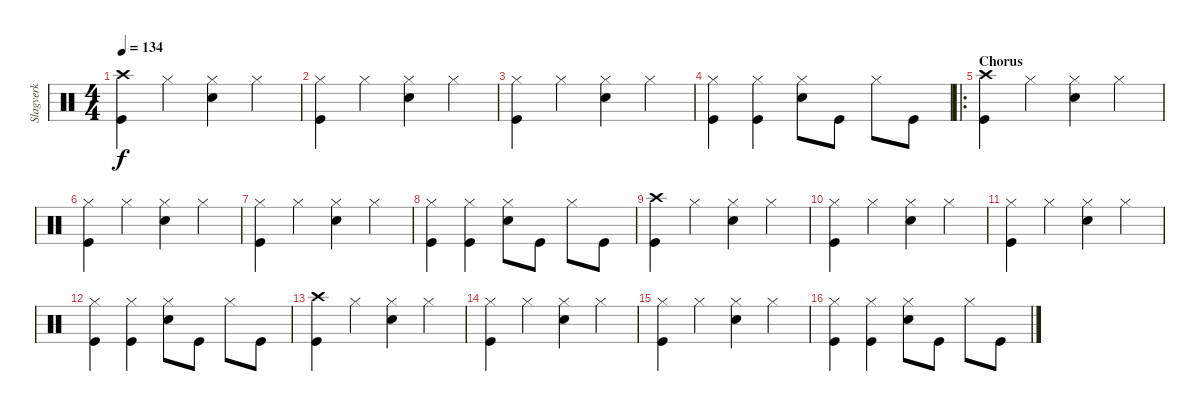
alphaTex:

\track ("Slagverk" "Slagverk") {instrument percussion}
\staff {score}
\articulation defaults
\ts (4 4)
\tempo 134
\clef neutral
\ks c
("Crash high (hit)" "Kick (hit)").4{dy f} "Hi-Hat (closed)".4 ("Hi-Hat (closed)" "Snare (hit) 2").4 "Hi-Hat (closed)".4 |
("Hi-Hat (closed)" "Kick (hit)").4 "Hi-Hat (closed)".4 ("Hi-Hat (closed)" "Snare (hit) 2").4 "Hi-Hat (closed)".4 |
("Hi-Hat (closed)" "Kick (hit)").4 "Hi-Hat (closed)".4 ("Hi-Hat (closed)" "Snare (hit) 2").4 "Hi-Hat (closed)".4 |
("Hi-Hat (closed)" "Kick (hit)").4 ("Hi-Hat (closed)" "Kick (hit)").4 ("Hi-Hat (closed)" "Snare (hit) 2").8 "Kick (hit)".8 "Hi-Hat (closed)".8 "Kick (hit)".8 |
\ro
\section ("" "Chorus")
("Crash high (hit)" "Kick (hit)").4 "Hi-Hat (closed)".4 ("Hi-Hat (closed)" "Snare (hit) 2").4 "Hi-Hat (closed)".4 |
("Hi-Hat (closed)" "Kick (hit)").4 "Hi-Hat (closed)".4 ("Hi-Hat (closed)" "Snare (hit) 2").4 "Hi-Hat (closed)".4 |
("Hi-Hat (closed)" "Kick (hit)").4 "Hi-Hat (closed)".4 ("Hi-Hat (closed)" "Snare (hit) 2").4 "Hi-Hat (closed)".4 |
("Hi-Hat (closed)" "Kick (hit)").4 ("Hi-Hat (closed)" "Kick (hit)").4 ("Hi-Hat (closed)" "Snare (hit) 2").8 "Kick (hit)".8 "Hi-Hat (closed)".8 "Kick (hit)".8 |
("Crash high (hit)" "Kick (hit)").4 "Hi-Hat (closed)".4 ("Hi-Hat (closed)" "Snare (hit) 2").4 "Hi-Hat (closed)".4 |
("Hi-Hat (closed)" "Kick (hit)").4 "Hi-Hat (closed)".4 ("Hi-Hat (closed)" "Snare (hit) 2").4 "Hi-Hat (closed)".4 |
("Hi-Hat (closed)" "Kick (hit)").4 "Hi-Hat (closed)".4 ("Hi-Hat (closed)" "Snare (hit) 2").4 "Hi-Hat (closed)".4 |
("Hi-Hat (closed)" "Kick (hit)").4 ("Hi-Hat (closed)" "Kick (hit)").4 ("Hi-Hat (closed)" "Snare (hit) 2").8 "Kick (hit)".8 "Hi-Hat (closed)".8 "Kick (hit)".8 |
("Crash high (hit)" "Kick (hit)").4 "Hi-Hat (closed)".4 ("Hi-Hat (closed)" "Snare (hit) 2").4 "Hi-Hat (closed)".4 |
("Hi-Hat (closed)" "Kick (hit)").4 "Hi-Hat (closed)".4 ("Hi-Hat (closed)" "Snare (hit) 2").4 "Hi-Hat (closed)".4 |
("Hi-Hat (closed)" "Kick (hit)").4 "Hi-Hat (closed)".4 ("Hi-Hat (closed)" "Snare (hit) 2").4 "Hi-Hat (closed)".4 |
("Hi-Hat (closed)" "Kick (hit)").4 ("Hi-Hat (closed)" "Kick (hit)").4 ("Hi-Hat (closed)" "Snare (hit) 2").8 "Kick (hit)".8 "Hi-Hat (closed)".8 "Kick (hit)".8
